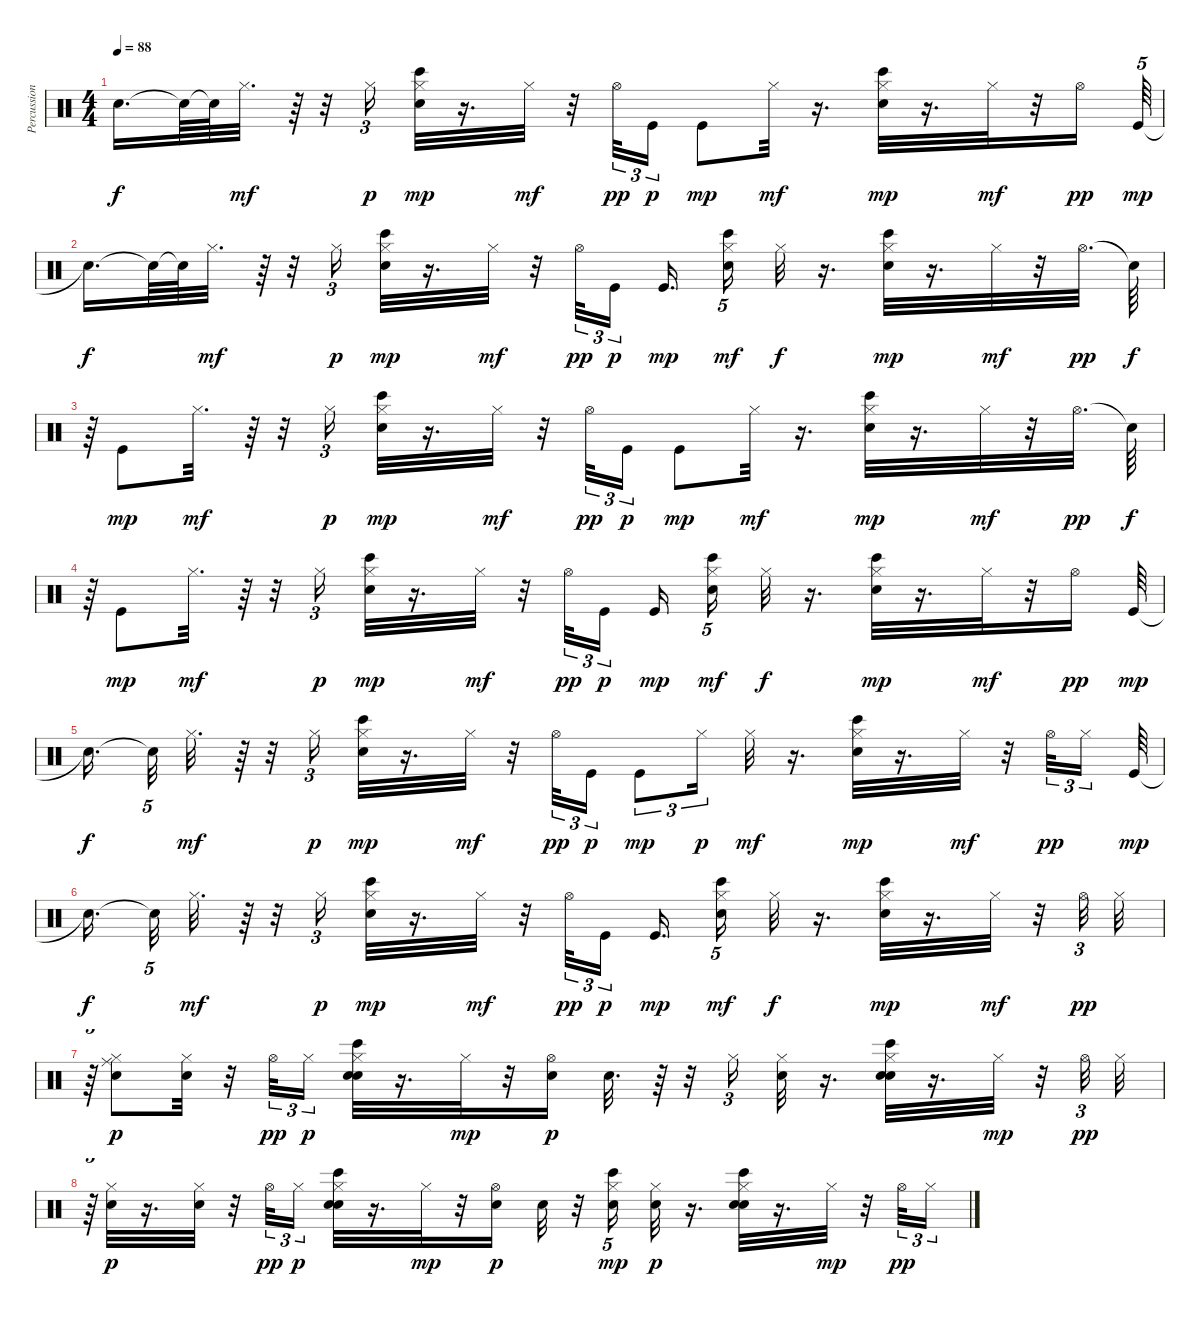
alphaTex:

\track ("Percussion" "Percussion") {instrument percussion}
\staff {score}
\articulation defaults
\ts (4 4)
\tempo 88
\clef neutral
\ks c "Snare (hit)"{t}.16{d dy f} "Snare (hit)"{t}.64 "Snare (hit)"{t}.64 "Hi-Hat (closed)".32{d dy mf}
r.64 r.32 "Hi-Hat (closed)".16{tu (3 2) dy p} ("Bongo High (hit)" "Hi-Hat (closed)" "Electric Snare (hit)").32{dy mp} r.16{d} "Hi-Hat (closed)".32{dy mf} r.32 "Hi-Hat (open)".32{tu (3 2) dy pp} "Kick (hit)".16{tu (3 2) dy p} "Kick (hit)".8{dy mp} "Hi-Hat (closed)".32{dy mf} r.16{d} ("Bongo High (hit)" "Hi-Hat (closed)" "Electric Snare (hit)").32{dy mp} r.16{d} "Hi-Hat (closed)".32{dy mf} r.32 "Hi-Hat (open)".16{dy pp} "Kick (hit)".64{tu (5 4) dy mp} |
"Snare (hit)"{t}.16{d dy f} "Snare (hit)"{t}.64 "Snare (hit)"{t}.64 "Hi-Hat (closed)".32{d dy mf} r.64 r.32 "Hi-Hat (closed)".16{tu (3 2) dy p} ("Bongo High (hit)" "Hi-Hat (closed)" "Electric Snare (hit)").32{dy mp} r.16{d} "Hi-Hat (closed)".32{dy mf} r.32 "Hi-Hat (open)".32{tu (3 2) dy pp} "Kick (hit)".16{tu (3 2) dy p} "Kick (hit)".16{d dy mp} ("Bongo High (hit)" "Electric Snare (hit)" "Hi-Hat (closed)").16{tu (5 4) dy mf} "Hi-Hat (closed)".32{dy f} r.16{d} ("Bongo High (hit)" "Hi-Hat (closed)" "Electric Snare (hit)").32{dy mp} r.16{d} "Hi-Hat (closed)".32{dy mf} r.32 "Hi-Hat (open)".32{d dy pp} "Snare (hit)"{t}.64{dy f} |
r.64 "Kick (hit)".8{dy mp} "Hi-Hat (closed)".32{d dy mf} r.64 r.32 "Hi-Hat (closed)".16{tu (3 2) dy p} ("Bongo High (hit)" "Hi-Hat (closed)" "Electric Snare (hit)").32{dy mp} r.16{d} "Hi-Hat (closed)".32{dy mf} r.32 "Hi-Hat (open)".32{tu (3 2) dy pp} "Kick (hit)".16{tu (3 2) dy p} "Kick (hit)".8{dy mp} "Hi-Hat (closed)".32{dy mf} r.16{d} ("Bongo High (hit)" "Hi-Hat (closed)" "Electric Snare (hit)").32{dy mp} r.16{d} "Hi-Hat (closed)".32{dy mf} r.32 "Hi-Hat (open)".32{d dy pp} "Snare (hit)"{t}.64{dy f} |
r.64 "Kick (hit)".8{dy mp} "Hi-Hat (closed)".32{d dy mf} r.64 r.32 "Hi-Hat (closed)".16{tu (3 2) dy p} ("Bongo High (hit)" "Hi-Hat (closed)" "Electric Snare (hit)").32{dy mp} r.16{d} "Hi-Hat (closed)".32{dy mf} r.32 "Hi-Hat (open)".32{tu (3 2) dy pp} "Kick (hit)".16{tu (3 2) dy p} "Kick (hit)".16{dy mp} ("Bongo High (hit)" "Electric Snare (hit)" "Hi-Hat (closed)").16{tu (5 4) dy mf} "Hi-Hat (closed)".32{dy f} r.16{d} ("Bongo High (hit)" "Hi-Hat (closed)" "Electric Snare (hit)").32{dy mp} r.16{d} "Hi-Hat (closed)".32{dy mf} r.32 "Hi-Hat (open)".16{dy pp} "Kick (hit)".64{dy mp} |
"Snare (hit)"{t}.16{d dy f} "Snare (hit)"{t}.32{tu (5 4)} "Hi-Hat (closed)".32{d dy mf} r.64 r.32 "Hi-Hat (closed)".16{tu (3 2) dy p} ("Bongo High (hit)" "Hi-Hat (closed)" "Electric Snare (hit)").32{dy mp} r.16{d} "Hi-Hat (closed)".32{dy mf} r.32 "Hi-Hat (open)".32{tu (3 2) dy pp} "Kick (hit)".16{tu (3 2) dy p} "Kick (hit)".8{tu (3 2) dy mp} "Hi-Hat (closed)".16{tu (3 2) dy p} "Hi-Hat (closed)".32{dy mf} r.16{d} ("Bongo High (hit)" "Hi-Hat (closed)" "Electric Snare (hit)").32{dy mp} r.16{d} "Hi-Hat (closed)".32{dy mf} r.32 "Hi-Hat (open)".32{tu (3 2) dy pp} "Hi-Hat (closed)".16{tu (3 2)} "Kick (hit)".64{dy mp} |
"Snare (hit)"{t}.16{d dy f} "Snare (hit)"{t}.32{tu (5 4)} "Hi-Hat (closed)".32{d dy mf} r.64 r.32 "Hi-Hat (closed)".16{tu (3 2) dy p} ("Bongo High (hit)" "Hi-Hat (closed)" "Electric Snare (hit)").32{dy mp} r.16{d} "Hi-Hat (closed)".32{dy mf} r.32 "Hi-Hat (open)".32{tu (3 2) dy pp} "Kick (hit)".16{tu (3 2) dy p} "Kick (hit)".16{d dy mp} ("Bongo High (hit)" "Electric Snare (hit)" "Hi-Hat (closed)").16{tu (5 4) dy mf} "Hi-Hat (closed)".32{dy f} r.16{d} ("Bongo High (hit)" "Hi-Hat (closed)" "Electric Snare (hit)").32{dy mp} r.16{d} "Hi-Hat (closed)".32{dy mf} r.32 "Hi-Hat (open)".32{tu (3 2) dy pp} "Hi-Hat (closed)".32 |
r.64{tu (5 4)} ("Ride (middle)" "Hi-Hat (closed)" "Snare (hit) 2").8{dy p volume 12} ("Hi-Hat (closed)" "Snare (hit) 2").32 r.32 "Hi-Hat (open)".32{tu (3 2) dy pp} "Hi-Hat (closed)".16{tu (3 2) dy p} ("Bongo High (hit)" "Electric Snare (hit)" "Hi-Hat (closed)" "Snare (hit) 2").32 r.16{d} "Hi-Hat (closed)".32{dy mp} r.32 ("Hi-Hat (open)" "Snare (hit) 2").16{dy p} "Snare (hit) 2".32{d} r.64 r.32 "Hi-Hat (closed)".16{tu (3 2)} ("Hi-Hat (closed)" "Snare (hit) 2").32 r.16{d} ("Bongo High (hit)" "Electric Snare (hit)" "Hi-Hat (closed)" "Snare (hit) 2").32 r.16{d} "Hi-Hat (closed)".32{dy mp} r.32 "Hi-Hat (open)".32{tu (3 2) dy pp} "Hi-Hat (closed)".32 |
r.64{tu (5 4)} ("Hi-Hat (closed)" "Snare (hit) 2").32{dy p} r.16{d} ("Hi-Hat (closed)" "Snare (hit) 2").32 r.32 "Hi-Hat (open)".32{tu (3 2) dy pp} "Hi-Hat (closed)".16{tu (3 2) dy p} ("Bongo High (hit)" "Electric Snare (hit)" "Hi-Hat (closed)" "Snare (hit) 2").32 r.16{d} "Hi-Hat (closed)".32{dy mp} r.32 ("Hi-Hat (open)" "Snare (hit) 2").16{dy p} "Snare (hit) 2".32 r.32 ("Bongo High (hit)" "Electric Snare (hit)" "Hi-Hat (closed)").16{tu (5 4) dy mp} ("Hi-Hat (closed)" "Snare (hit) 2").32{dy p} r.16{d} ("Hi-Hat (closed)" "Bongo High (hit)" "Electric Snare (hit)" "Snare (hit) 2").32 r.16{d} "Hi-Hat (closed)".32{dy mp} r.32 "Hi-Hat (open)".32{tu (3 2) dy pp} "Hi-Hat (closed)".16{tu (3 2)}
